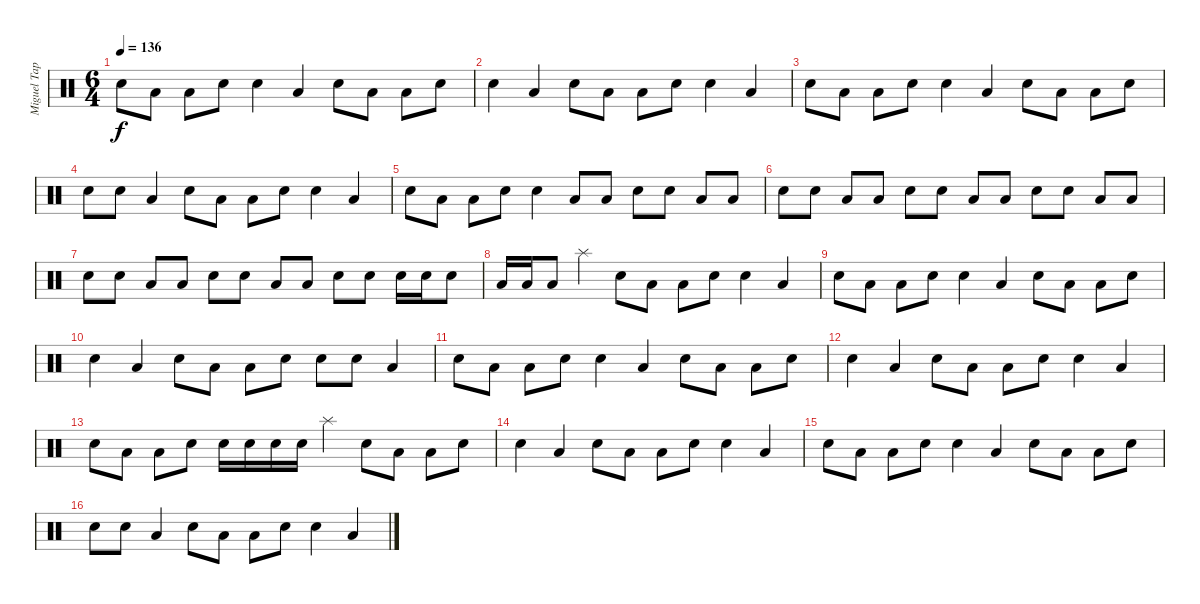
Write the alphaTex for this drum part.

\track ("Miguel Tapia (Bateria)" "Miguel Tap") {instrument percussion}
\staff {score}
\articulation defaults
\ts (6 4)
\tempo 136
\clef neutral
\ks c "Snare (hit) 2".8{dy f} "Low Tom (hit)".8 "Low Tom (hit)".8 "Snare (hit) 2".8 "Snare (hit) 2".4 "Low Tom (hit)".4 "Snare (hit) 2".8 "Low Tom (hit)".8 "Low Tom (hit)".8 "Snare (hit) 2".8
|
"Snare (hit) 2".4 "Low Tom (hit)".4 "Snare (hit) 2".8 "Low Tom (hit)".8 "Low Tom (hit)".8 "Snare (hit) 2".8 "Snare (hit) 2".4 "Low Tom (hit)".4 |
"Snare (hit) 2".8 "Low Tom (hit)".8 "Low Tom (hit)".8 "Snare (hit) 2".8 "Snare (hit) 2".4 "Low Tom (hit)".4 "Snare (hit) 2".8 "Low Tom (hit)".8 "Low Tom (hit)".8 "Snare (hit) 2".8 |
"Snare (hit) 2".8 "Snare (hit) 2".8 "Low Tom (hit)".4 "Snare (hit) 2".8 "Low Tom (hit)".8 "Low Tom (hit)".8 "Snare (hit) 2".8 "Snare (hit) 2".4 "Low Tom (hit)".4 |
"Snare (hit) 2".8 "Low Tom (hit)".8 "Low Tom (hit)".8 "Snare (hit) 2".8 "Snare (hit) 2".4 "Low Tom (hit)".8 "Low Tom (hit)".8 "Snare (hit) 2".8 "Snare (hit) 2".8 "Low Tom (hit)".8 "Low Tom (hit)".8 |
"Snare (hit) 2".8 "Snare (hit) 2".8 "Low Tom (hit)".8 "Low Tom (hit)".8 "Snare (hit) 2".8 "Snare (hit) 2".8 "Low Tom (hit)".8 "Low Tom (hit)".8 "Snare (hit) 2".8 "Snare (hit) 2".8 "Low Tom (hit)".8 "Low Tom (hit)".8 |
"Snare (hit) 2".8 "Snare (hit) 2".8 "Low Tom (hit)".8 "Low Tom (hit)".8 "Snare (hit) 2".8 "Snare (hit) 2".8 "Low Tom (hit)".8 "Low Tom (hit)".8 "Snare (hit) 2".8 "Snare (hit) 2".8 "Snare (hit) 2".16 "Snare (hit) 2".16 "Snare (hit) 2".8 |
"Low Tom (hit)".16 "Low Tom (hit)".16 "Low Tom (hit)".8 "Splash (hit)".4 "Snare (hit) 2".8 "Low Tom (hit)".8 "Low Tom (hit)".8 "Snare (hit) 2".8 "Snare (hit) 2".4 "Low Tom (hit)".4 |
"Snare (hit) 2".8 "Low Tom (hit)".8 "Low Tom (hit)".8 "Snare (hit) 2".8 "Snare (hit) 2".4 "Low Tom (hit)".4 "Snare (hit) 2".8 "Low Tom (hit)".8 "Low Tom (hit)".8 "Snare (hit) 2".8 |
"Snare (hit) 2".4 "Low Tom (hit)".4 "Snare (hit) 2".8 "Low Tom (hit)".8 "Low Tom (hit)".8 "Snare (hit) 2".8 "Snare (hit) 2".8 "Snare (hit) 2".8 "Low Tom (hit)".4 |
"Snare (hit) 2".8 "Low Tom (hit)".8 "Low Tom (hit)".8 "Snare (hit) 2".8 "Snare (hit) 2".4 "Low Tom (hit)".4 "Snare (hit) 2".8 "Low Tom (hit)".8 "Low Tom (hit)".8 "Snare (hit) 2".8 |
"Snare (hit) 2".4 "Low Tom (hit)".4 "Snare (hit) 2".8 "Low Tom (hit)".8 "Low Tom (hit)".8 "Snare (hit) 2".8 "Snare (hit) 2".4 "Low Tom (hit)".4 |
"Snare (hit) 2".8 "Low Tom (hit)".8 "Low Tom (hit)".8 "Snare (hit) 2".8 "Snare (hit) 2".16 "Snare (hit) 2".16 "Snare (hit) 2".16 "Snare (hit) 2".16 "Splash (hit)".4 "Snare (hit) 2".8 "Low Tom (hit)".8 "Low Tom (hit)".8 "Snare (hit) 2".8 |
"Snare (hit) 2".4 "Low Tom (hit)".4 "Snare (hit) 2".8 "Low Tom (hit)".8 "Low Tom (hit)".8 "Snare (hit) 2".8 "Snare (hit) 2".4 "Low Tom (hit)".4 |
"Snare (hit) 2".8 "Low Tom (hit)".8 "Low Tom (hit)".8 "Snare (hit) 2".8 "Snare (hit) 2".4 "Low Tom (hit)".4 "Snare (hit) 2".8 "Low Tom (hit)".8 "Low Tom (hit)".8 "Snare (hit) 2".8 |
"Snare (hit) 2".8 "Snare (hit) 2".8 "Low Tom (hit)".4 "Snare (hit) 2".8 "Low Tom (hit)".8 "Low Tom (hit)".8 "Snare (hit) 2".8 "Snare (hit) 2".4 "Low Tom (hit)".4
